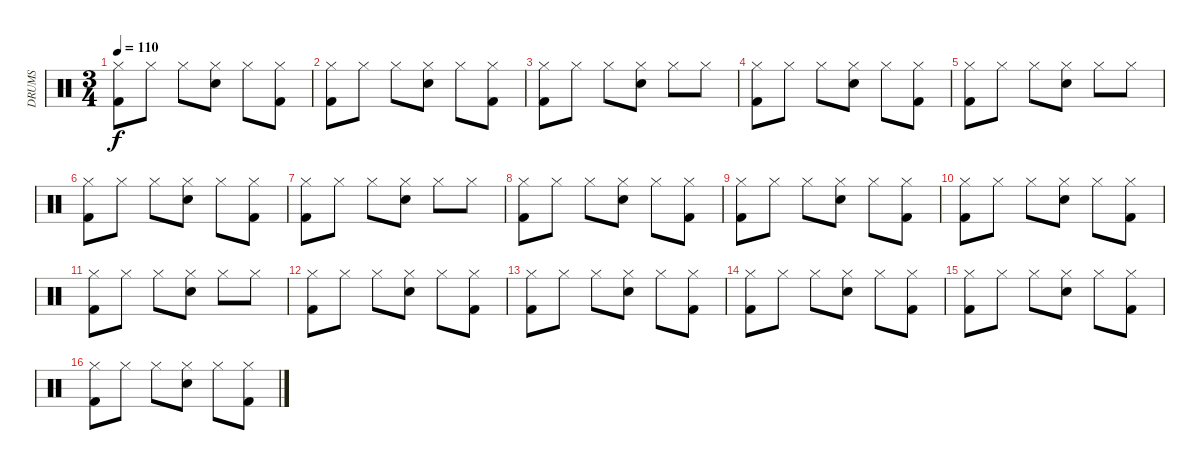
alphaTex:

\track ("DRUMS" "DRUMS") {instrument percussion}
\staff {score}
\articulation defaults
\ts (3 4)
\tempo 110
\clef neutral
\ks c
("Kick (hit) 2" "Hi-Hat (closed)").8{dy f} "Hi-Hat (closed)".8 "Hi-Hat (closed)".8 ("Electric Snare (hit)" "Hi-Hat (closed)").8 "Hi-Hat (closed)".8 ("Kick (hit) 2" "Hi-Hat (closed)").8 |
("Kick (hit) 2" "Hi-Hat (closed)").8 "Hi-Hat (closed)".8 "Hi-Hat (closed)".8 ("Electric Snare (hit)" "Hi-Hat (closed)").8 "Hi-Hat (closed)".8 ("Kick (hit) 2" "Hi-Hat (closed)").8 |
("Kick (hit) 2" "Hi-Hat (closed)").8 "Hi-Hat (closed)".8 "Hi-Hat (closed)".8 ("Electric Snare (hit)" "Hi-Hat (closed)").8 "Hi-Hat (closed)".8 "Hi-Hat (closed)".8 |
("Kick (hit) 2" "Hi-Hat (closed)").8 "Hi-Hat (closed)".8 "Hi-Hat (closed)".8 ("Electric Snare (hit)" "Hi-Hat (closed)").8 "Hi-Hat (closed)".8 ("Kick (hit) 2" "Hi-Hat (closed)").8 |
("Kick (hit) 2" "Hi-Hat (closed)").8 "Hi-Hat (closed)".8 "Hi-Hat (closed)".8 ("Electric Snare (hit)" "Hi-Hat (closed)").8 "Hi-Hat (closed)".8 "Hi-Hat (closed)".8 |
("Kick (hit) 2" "Hi-Hat (closed)").8 "Hi-Hat (closed)".8 "Hi-Hat (closed)".8 ("Electric Snare (hit)" "Hi-Hat (closed)").8 "Hi-Hat (closed)".8 ("Kick (hit) 2" "Hi-Hat (closed)").8 |
("Kick (hit) 2" "Hi-Hat (closed)").8 "Hi-Hat (closed)".8 "Hi-Hat (closed)".8 ("Electric Snare (hit)" "Hi-Hat (closed)").8 "Hi-Hat (closed)".8 "Hi-Hat (closed)".8 |
("Kick (hit) 2" "Hi-Hat (closed)").8 "Hi-Hat (closed)".8 "Hi-Hat (closed)".8 ("Electric Snare (hit)" "Hi-Hat (closed)").8 "Hi-Hat (closed)".8 ("Kick (hit) 2" "Hi-Hat (closed)").8 |
("Kick (hit) 2" "Hi-Hat (closed)").8 "Hi-Hat (closed)".8 "Hi-Hat (closed)".8 ("Electric Snare (hit)" "Hi-Hat (closed)").8 "Hi-Hat (closed)".8 ("Kick (hit) 2" "Hi-Hat (closed)").8 |
("Kick (hit) 2" "Hi-Hat (closed)").8 "Hi-Hat (closed)".8 "Hi-Hat (closed)".8 ("Electric Snare (hit)" "Hi-Hat (closed)").8 "Hi-Hat (closed)".8 ("Kick (hit) 2" "Hi-Hat (closed)").8 |
("Kick (hit) 2" "Hi-Hat (closed)").8 "Hi-Hat (closed)".8 "Hi-Hat (closed)".8 ("Electric Snare (hit)" "Hi-Hat (closed)").8 "Hi-Hat (closed)".8 "Hi-Hat (closed)".8 |
("Kick (hit) 2" "Hi-Hat (closed)").8 "Hi-Hat (closed)".8 "Hi-Hat (closed)".8 ("Electric Snare (hit)" "Hi-Hat (closed)").8 "Hi-Hat (closed)".8 ("Kick (hit) 2" "Hi-Hat (closed)").8 |
("Kick (hit) 2" "Hi-Hat (closed)").8 "Hi-Hat (closed)".8 "Hi-Hat (closed)".8 ("Electric Snare (hit)" "Hi-Hat (closed)").8 "Hi-Hat (closed)".8 ("Kick (hit) 2" "Hi-Hat (closed)").8 |
("Kick (hit) 2" "Hi-Hat (closed)").8 "Hi-Hat (closed)".8 "Hi-Hat (closed)".8 ("Electric Snare (hit)" "Hi-Hat (closed)").8 "Hi-Hat (closed)".8 ("Kick (hit) 2" "Hi-Hat (closed)").8 |
("Kick (hit) 2" "Hi-Hat (closed)").8 "Hi-Hat (closed)".8 "Hi-Hat (closed)".8 ("Electric Snare (hit)" "Hi-Hat (closed)").8 "Hi-Hat (closed)".8 ("Kick (hit) 2" "Hi-Hat (closed)").8 |
("Kick (hit) 2" "Hi-Hat (closed)").8 "Hi-Hat (closed)".8 "Hi-Hat (closed)".8 ("Electric Snare (hit)" "Hi-Hat (closed)").8 "Hi-Hat (closed)".8 ("Kick (hit) 2" "Hi-Hat (closed)").8
